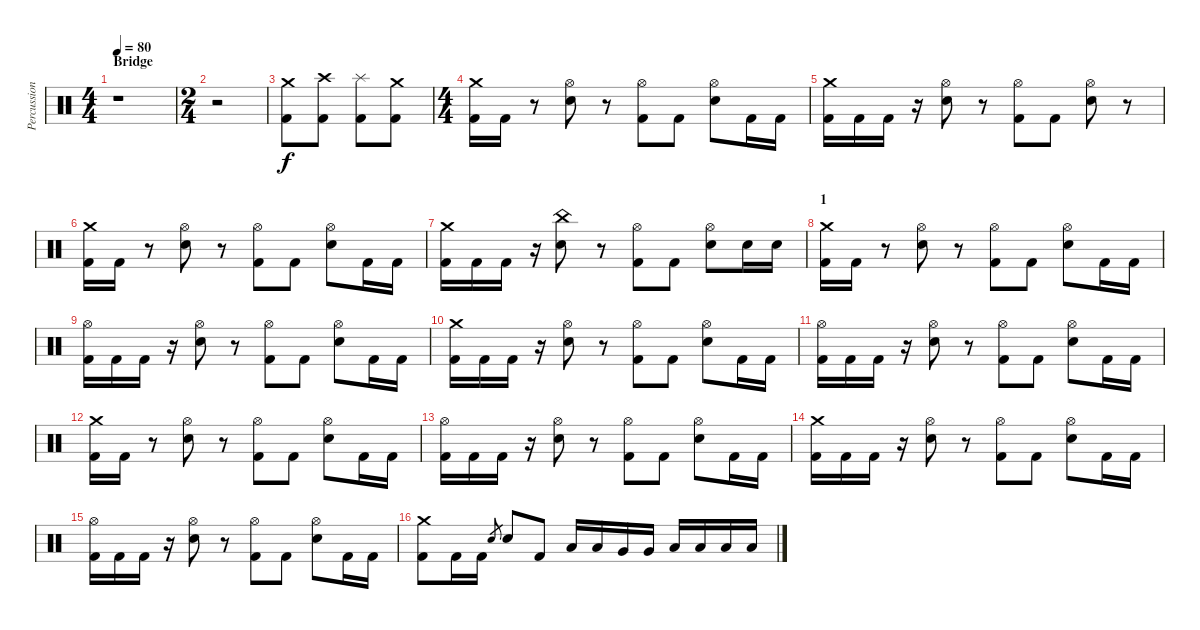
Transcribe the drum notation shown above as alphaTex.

\track ("Percussions" "Percussion") {instrument percussion}
\staff {score}
\articulation defaults
\ts (4 4)
\section ("" "Bridge")
\tempo 80
\clef neutral
\ks c
r.1{dy f} |
\ts (2 4)
r.2 |
("Crash medium (hit)" "Kick (hit) 2").8 ("Crash high (hit)" "Kick (hit) 2").8 ("Splash (hit)" "Kick (hit) 2").8 ("Crash medium (hit)" "Kick (hit) 2").8 |
\ts (4 4)
("Crash medium (hit)" "Kick (hit) 2").16 "Kick (hit) 2".16 r.8 ("Hi-Hat (open)" "Electric Snare (hit)").8 r.8 ("Hi-Hat (open)" "Kick (hit) 2").8 "Kick (hit) 2".8 ("Hi-Hat (open)" "Electric Snare (hit)").8 "Kick (hit) 2".16 "Kick (hit) 2".16 |
("Crash medium (hit)" "Kick (hit) 2").16 "Kick (hit) 2".16 "Kick (hit) 2".16 r.16 ("Hi-Hat (open)" "Electric Snare (hit)").8 r.8 ("Hi-Hat (open)" "Kick (hit) 2").8 "Kick (hit) 2".8 ("Hi-Hat (open)" "Electric Snare (hit)").8 r.8 |
("Crash medium (hit)" "Kick (hit) 2").16 "Kick (hit) 2".16 r.8 ("Hi-Hat (open)" "Electric Snare (hit)").8 r.8 ("Hi-Hat (open)" "Kick (hit) 2").8 "Kick (hit) 2".8 ("Hi-Hat (open)" "Electric Snare (hit)").8 "Kick (hit) 2".16 "Kick (hit) 2".16 |
("Crash medium (hit)" "Kick (hit) 2").16 "Kick (hit) 2".16 "Kick (hit) 2".16 r.16 ("China (hit)" "Electric Snare (hit)").8 r.8 ("Hi-Hat (open)" "Kick (hit) 2").8 "Kick (hit) 2".8 ("Hi-Hat (open)" "Electric Snare (hit)").8 "Electric Snare (hit)".16 "Electric Snare (hit)".16 |
\section ("" "1")
("Crash medium (hit)" "Kick (hit) 2").16 "Kick (hit) 2".16 r.8 ("Hi-Hat (open)" "Electric Snare (hit)").8 r.8 ("Hi-Hat (open)" "Kick (hit) 2").8 "Kick (hit) 2".8 ("Hi-Hat (open)" "Electric Snare (hit)").8 "Kick (hit) 2".16 "Kick (hit) 2".16 |
("Hi-Hat (open)" "Kick (hit) 2").16 "Kick (hit) 2".16 "Kick (hit) 2".16 r.16 ("Hi-Hat (open)" "Electric Snare (hit)").8 r.8 ("Hi-Hat (open)" "Kick (hit) 2").8 "Kick (hit) 2".8 ("Hi-Hat (open)" "Electric Snare (hit)").8 "Kick (hit) 2".16 "Kick (hit) 2".16 |
("Crash medium (hit)" "Kick (hit) 2").16 "Kick (hit) 2".16 "Kick (hit) 2".16 r.16 ("Hi-Hat (open)" "Electric Snare (hit)").8 r.8 ("Hi-Hat (open)" "Kick (hit) 2").8 "Kick (hit) 2".8 ("Hi-Hat (open)" "Electric Snare (hit)").8 "Kick (hit) 2".16 "Kick (hit) 2".16 |
("Hi-Hat (open)" "Kick (hit) 2").16 "Kick (hit) 2".16 "Kick (hit) 2".16 r.16 ("Hi-Hat (open)" "Electric Snare (hit)").8 r.8 ("Hi-Hat (open)" "Kick (hit) 2").8 "Kick (hit) 2".8 ("Hi-Hat (open)" "Electric Snare (hit)").8 "Kick (hit) 2".16 "Kick (hit) 2".16 |
("Crash medium (hit)" "Kick (hit) 2").16 "Kick (hit) 2".16 r.8 ("Hi-Hat (open)" "Electric Snare (hit)").8 r.8 ("Hi-Hat (open)" "Kick (hit) 2").8 "Kick (hit) 2".8 ("Hi-Hat (open)" "Electric Snare (hit)").8 "Kick (hit) 2".16 "Kick (hit) 2".16 |
("Hi-Hat (open)" "Kick (hit) 2").16 "Kick (hit) 2".16 "Kick (hit) 2".16 r.16 ("Hi-Hat (open)" "Electric Snare (hit)").8 r.8 ("Hi-Hat (open)" "Kick (hit) 2").8 "Kick (hit) 2".8 ("Hi-Hat (open)" "Electric Snare (hit)").8 "Kick (hit) 2".16 "Kick (hit) 2".16 |
("Crash medium (hit)" "Kick (hit) 2").16 "Kick (hit) 2".16 "Kick (hit) 2".16 r.16 ("Hi-Hat (open)" "Electric Snare (hit)").8 r.8 ("Hi-Hat (open)" "Kick (hit) 2").8 "Kick (hit) 2".8 ("Hi-Hat (open)" "Electric Snare (hit)").8 "Kick (hit) 2".16 "Kick (hit) 2".16 |
("Hi-Hat (open)" "Kick (hit) 2").16 "Kick (hit) 2".16 "Kick (hit) 2".16 r.16 ("Hi-Hat (open)" "Electric Snare (hit)").8 r.8 ("Hi-Hat (open)" "Kick (hit) 2").8 "Kick (hit) 2".8 ("Hi-Hat (open)" "Electric Snare (hit)").8 "Kick (hit) 2".16 "Kick (hit) 2".16 |
("Crash medium (hit)" "Kick (hit) 2").8 "Kick (hit) 2".16 "Kick (hit) 2".16 "Electric Snare (hit)".8{gr} "Electric Snare (hit)".8 "Kick (hit) 2".8 "Low Tom (hit)".16 "Low Tom (hit)".16 "Very Low Tom (hit)".16 "Very Low Tom (hit)".16 "Low Floor Tom (hit)".16 "Low Floor Tom (hit)".16 "Low Floor Tom (hit)".16 "Low Floor Tom (hit)".16
